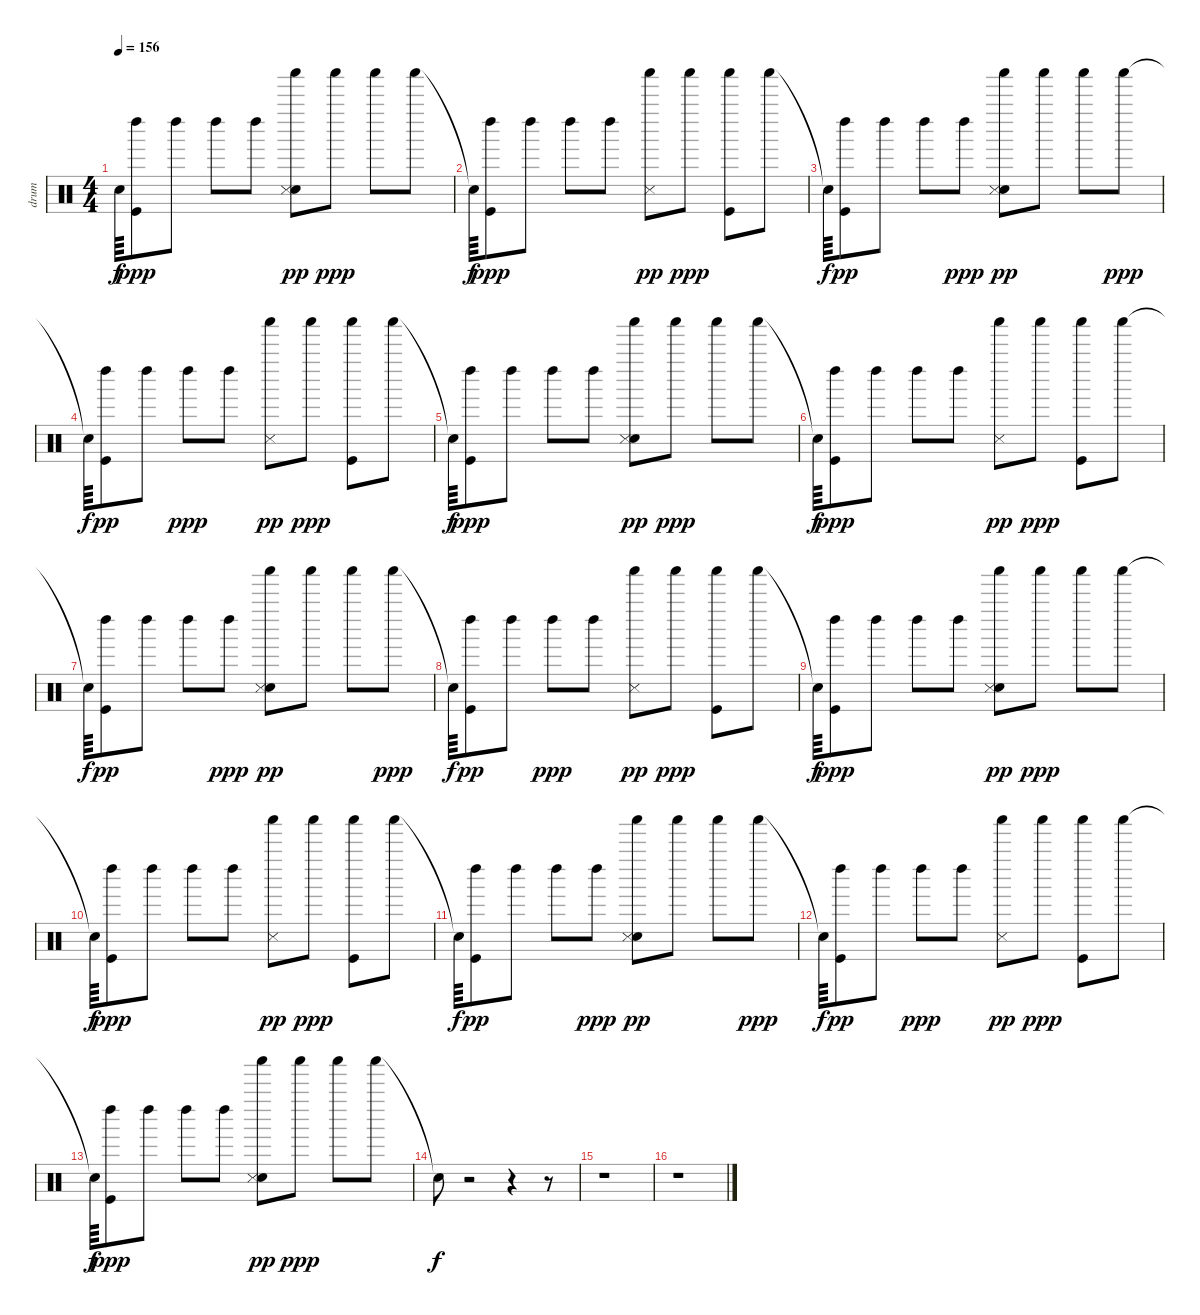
\track ("drum" "drum") {instrument percussion}
\staff {score}
\articulation defaults
\ts (4 4)
\tempo 156
\clef neutral
\ks c "Snare (hit)"{t}.64{dy f}
("Left Maraca (hit)" "Kick (hit)").8{dy ppp} "Left Maraca (hit)".8 "Left Maraca (hit)".8 "Left Maraca (hit)".8 ("Snare (hit) 2" "Shaker (hit)" "Snare (side stick) 3").8{dy pp} "Shaker (hit)".8{dy ppp} "Shaker (hit)".8 "Shaker (hit)".8 |
"Snare (hit)"{t}.64{dy f} ("Left Maraca (hit)" "Kick (hit)").8{dy ppp} "Left Maraca (hit)".8 "Left Maraca (hit)".8 "Left Maraca (hit)".8 ("Snare (side stick) 3" "Shaker (hit)").8{dy pp} "Shaker (hit)".8{dy ppp} ("Kick (hit)" "Shaker (hit)").8 "Shaker (hit)".8 |
"Snare (hit)"{t}.64{dy f} ("Left Maraca (hit)" "Kick (hit)").8{dy pp} "Left Maraca (hit)".8 "Left Maraca (hit)".8 "Left Maraca (hit)".8{dy ppp} ("Snare (hit) 2" "Snare (side stick) 3" "Shaker (hit)").8{dy pp} "Shaker (hit)".8 "Shaker (hit)".8 "Shaker (hit)".8{dy ppp} |
"Snare (hit)"{t}.64{dy f} ("Kick (hit)" "Left Maraca (hit)").8{dy pp} "Left Maraca (hit)".8 "Left Maraca (hit)".8{dy ppp} "Left Maraca (hit)".8 ("Snare (side stick) 3" "Shaker (hit)").8{dy pp} "Shaker (hit)".8{dy ppp} ("Kick (hit)" "Shaker (hit)").8 "Shaker (hit)".8 |
"Snare (hit)"{t}.64{dy f} ("Left Maraca (hit)" "Kick (hit)").8{dy ppp} "Left Maraca (hit)".8 "Left Maraca (hit)".8 "Left Maraca (hit)".8 ("Snare (hit) 2" "Shaker (hit)" "Snare (side stick) 3").8{dy pp} "Shaker (hit)".8{dy ppp} "Shaker (hit)".8 "Shaker (hit)".8 |
"Snare (hit)"{t}.64{dy f} ("Left Maraca (hit)" "Kick (hit)").8{dy ppp} "Left Maraca (hit)".8 "Left Maraca (hit)".8 "Left Maraca (hit)".8 ("Snare (side stick) 3" "Shaker (hit)").8{dy pp} "Shaker (hit)".8{dy ppp} ("Kick (hit)" "Shaker (hit)").8 "Shaker (hit)".8 |
"Snare (hit)"{t}.64{dy f} ("Left Maraca (hit)" "Kick (hit)").8{dy pp} "Left Maraca (hit)".8 "Left Maraca (hit)".8 "Left Maraca (hit)".8{dy ppp} ("Snare (hit) 2" "Snare (side stick) 3" "Shaker (hit)").8{dy pp} "Shaker (hit)".8 "Shaker (hit)".8 "Shaker (hit)".8{dy ppp} |
"Snare (hit)"{t}.64{dy f} ("Kick (hit)" "Left Maraca (hit)").8{dy pp} "Left Maraca (hit)".8 "Left Maraca (hit)".8{dy ppp} "Left Maraca (hit)".8 ("Snare (side stick) 3" "Shaker (hit)").8{dy pp} "Shaker (hit)".8{dy ppp} ("Kick (hit)" "Shaker (hit)").8 "Shaker (hit)".8 |
"Snare (hit)"{t}.64{dy f} ("Left Maraca (hit)" "Kick (hit)").8{dy ppp} "Left Maraca (hit)".8 "Left Maraca (hit)".8 "Left Maraca (hit)".8 ("Snare (hit) 2" "Shaker (hit)" "Snare (side stick) 3").8{dy pp} "Shaker (hit)".8{dy ppp} "Shaker (hit)".8 "Shaker (hit)".8 |
"Snare (hit)"{t}.64{dy f} ("Left Maraca (hit)" "Kick (hit)").8{dy ppp} "Left Maraca (hit)".8 "Left Maraca (hit)".8 "Left Maraca (hit)".8 ("Snare (side stick) 3" "Shaker (hit)").8{dy pp} "Shaker (hit)".8{dy ppp} ("Kick (hit)" "Shaker (hit)").8 "Shaker (hit)".8 |
"Snare (hit)"{t}.64{dy f} ("Left Maraca (hit)" "Kick (hit)").8{dy pp} "Left Maraca (hit)".8 "Left Maraca (hit)".8 "Left Maraca (hit)".8{dy ppp} ("Snare (hit) 2" "Snare (side stick) 3" "Shaker (hit)").8{dy pp} "Shaker (hit)".8 "Shaker (hit)".8 "Shaker (hit)".8{dy ppp} |
"Snare (hit)"{t}.64{dy f} ("Kick (hit)" "Left Maraca (hit)").8{dy pp} "Left Maraca (hit)".8 "Left Maraca (hit)".8{dy ppp} "Left Maraca (hit)".8 ("Snare (side stick) 3" "Shaker (hit)").8{dy pp} "Shaker (hit)".8{dy ppp} ("Kick (hit)" "Shaker (hit)").8 "Shaker (hit)".8 |
"Snare (hit)"{t}.64{dy f} ("Left Maraca (hit)" "Kick (hit)").8{dy ppp} "Left Maraca (hit)".8 "Left Maraca (hit)".8 "Left Maraca (hit)".8 ("Snare (hit) 2" "Shaker (hit)" "Snare (side stick) 3").8{dy pp} "Shaker (hit)".8{dy ppp} "Shaker (hit)".8 "Shaker (hit)".8 |
"Snare (hit)"{t}.8{dy f} r.2 r.4 r.8 |
r.1 |
r.1
